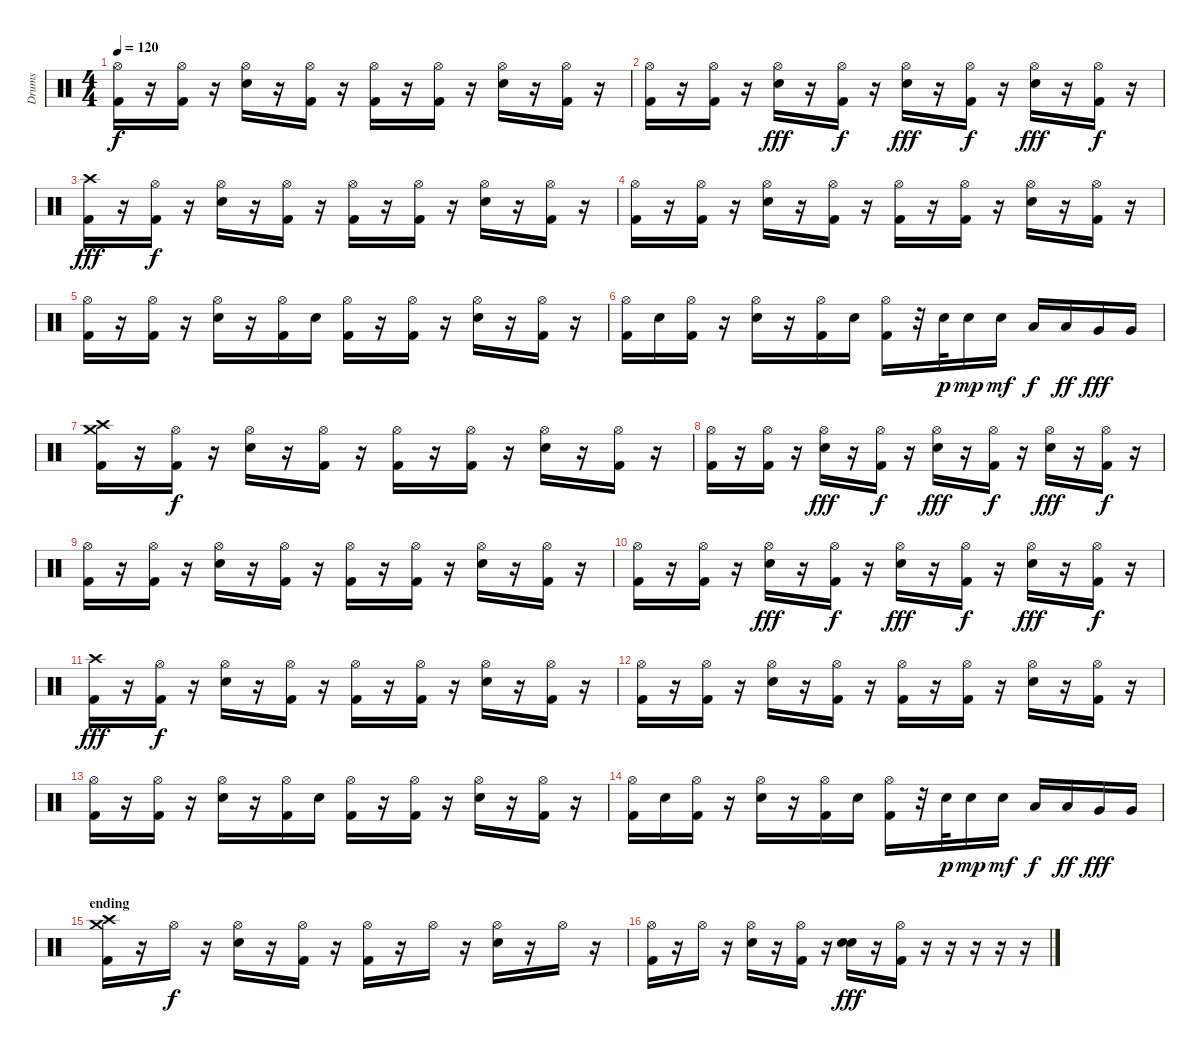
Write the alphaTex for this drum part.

\track ("Drums" "Drums") {instrument percussion}
\staff {score}
\articulation defaults
\ts (4 4)
\tempo 120
\clef neutral
\ks c
("Hi-Hat (open)" "Kick (hit) 2").16{dy f} r.16 ("Hi-Hat (open)" "Kick (hit) 2").16 r.16 ("Hi-Hat (open)" "Electric Snare (hit)").16 r.16 ("Hi-Hat (open)" "Kick (hit) 2").16 r.16 ("Hi-Hat (open)" "Kick (hit) 2").16 r.16 ("Hi-Hat (open)" "Kick (hit) 2").16 r.16 ("Hi-Hat (open)" "Electric Snare (hit)").16 r.16 ("Hi-Hat (open)" "Kick (hit) 2").16 r.16 |
("Hi-Hat (open)" "Kick (hit) 2").16 r.16 ("Hi-Hat (open)" "Kick (hit) 2").16 r.16 ("Hi-Hat (open)" "Electric Snare (hit)").16{dy fff} r.16 ("Hi-Hat (open)" "Kick (hit) 2").16{dy f} r.16 ("Hi-Hat (open)" "Electric Snare (hit)").16{dy fff} r.16 ("Hi-Hat (open)" "Kick (hit) 2").16{dy f} r.16 ("Hi-Hat (open)" "Electric Snare (hit)").16{dy fff} r.16 ("Hi-Hat (open)" "Kick (hit) 2").16{dy f} r.16 |
("Crash high (hit)" "Kick (hit) 2").16{dy fff} r.16 ("Hi-Hat (open)" "Kick (hit) 2").16{dy f} r.16 ("Hi-Hat (open)" "Electric Snare (hit)").16 r.16 ("Hi-Hat (open)" "Kick (hit) 2").16 r.16 ("Hi-Hat (open)" "Kick (hit) 2").16 r.16 ("Hi-Hat (open)" "Kick (hit) 2").16 r.16 ("Hi-Hat (open)" "Electric Snare (hit)").16 r.16 ("Hi-Hat (open)" "Kick (hit) 2").16 r.16 |
("Hi-Hat (open)" "Kick (hit) 2").16 r.16 ("Hi-Hat (open)" "Kick (hit) 2").16 r.16 ("Hi-Hat (open)" "Electric Snare (hit)").16 r.16 ("Hi-Hat (open)" "Kick (hit) 2").16 r.16 ("Hi-Hat (open)" "Kick (hit) 2").16 r.16 ("Hi-Hat (open)" "Kick (hit) 2").16 r.16 ("Hi-Hat (open)" "Electric Snare (hit)").16 r.16 ("Hi-Hat (open)" "Kick (hit) 2").16 r.16 |
("Hi-Hat (open)" "Kick (hit) 2").16 r.16 ("Hi-Hat (open)" "Kick (hit) 2").16 r.16 ("Hi-Hat (open)" "Electric Snare (hit)").16 r.16 ("Hi-Hat (open)" "Kick (hit) 2").16 "Electric Snare (hit)".16 ("Hi-Hat (open)" "Kick (hit) 2").16 r.16 ("Hi-Hat (open)" "Kick (hit) 2").16 r.16 ("Hi-Hat (open)" "Electric Snare (hit)").16 r.16 ("Hi-Hat (open)" "Kick (hit) 2").16 r.16 |
("Hi-Hat (open)" "Kick (hit) 2").16 "Electric Snare (hit)".16 ("Hi-Hat (open)" "Kick (hit) 2").16 r.16 ("Hi-Hat (open)" "Electric Snare (hit)").16 r.16 ("Hi-Hat (open)" "Kick (hit) 2").16 "Electric Snare (hit)".16 ("Hi-Hat (open)" "Kick (hit) 2").16 r.32 "Electric Snare (hit)".32{dy p} "Electric Snare (hit)".16{dy mp} "Electric Snare (hit)".16{dy mf} "Low Tom (hit)".16{dy f} "Low Tom (hit)".16{dy ff} "Very Low Tom (hit)".16{dy fff} "Very Low Tom (hit)".16 |
("Crash high (hit)" "Crash medium (hit)" "Kick (hit) 2").16 r.16 ("Hi-Hat (open)" "Kick (hit) 2").16{dy f} r.16 ("Hi-Hat (open)" "Electric Snare (hit)").16 r.16 ("Hi-Hat (open)" "Kick (hit) 2").16 r.16 ("Hi-Hat (open)" "Kick (hit) 2").16 r.16 ("Hi-Hat (open)" "Kick (hit) 2").16 r.16 ("Hi-Hat (open)" "Electric Snare (hit)").16 r.16 ("Hi-Hat (open)" "Kick (hit) 2").16 r.16 |
("Hi-Hat (open)" "Kick (hit) 2").16 r.16 ("Hi-Hat (open)" "Kick (hit) 2").16 r.16 ("Hi-Hat (open)" "Electric Snare (hit)").16{dy fff} r.16 ("Hi-Hat (open)" "Kick (hit) 2").16{dy f} r.16 ("Hi-Hat (open)" "Electric Snare (hit)").16{dy fff} r.16 ("Hi-Hat (open)" "Kick (hit) 2").16{dy f} r.16 ("Hi-Hat (open)" "Electric Snare (hit)").16{dy fff} r.16 ("Hi-Hat (open)" "Kick (hit) 2").16{dy f} r.16 |
("Hi-Hat (open)" "Kick (hit) 2").16 r.16 ("Hi-Hat (open)" "Kick (hit) 2").16 r.16 ("Hi-Hat (open)" "Electric Snare (hit)").16 r.16 ("Hi-Hat (open)" "Kick (hit) 2").16 r.16 ("Hi-Hat (open)" "Kick (hit) 2").16 r.16 ("Hi-Hat (open)" "Kick (hit) 2").16 r.16 ("Hi-Hat (open)" "Electric Snare (hit)").16 r.16 ("Hi-Hat (open)" "Kick (hit) 2").16 r.16 |
("Hi-Hat (open)" "Kick (hit) 2").16 r.16 ("Hi-Hat (open)" "Kick (hit) 2").16 r.16 ("Hi-Hat (open)" "Electric Snare (hit)").16{dy fff} r.16 ("Hi-Hat (open)" "Kick (hit) 2").16{dy f} r.16 ("Hi-Hat (open)" "Electric Snare (hit)").16{dy fff} r.16 ("Hi-Hat (open)" "Kick (hit) 2").16{dy f} r.16 ("Hi-Hat (open)" "Electric Snare (hit)").16{dy fff} r.16 ("Hi-Hat (open)" "Kick (hit) 2").16{dy f} r.16 |
("Crash high (hit)" "Kick (hit) 2").16{dy fff} r.16 ("Hi-Hat (open)" "Kick (hit) 2").16{dy f} r.16 ("Hi-Hat (open)" "Electric Snare (hit)").16 r.16 ("Hi-Hat (open)" "Kick (hit) 2").16 r.16 ("Hi-Hat (open)" "Kick (hit) 2").16 r.16 ("Hi-Hat (open)" "Kick (hit) 2").16 r.16 ("Hi-Hat (open)" "Electric Snare (hit)").16 r.16 ("Hi-Hat (open)" "Kick (hit) 2").16 r.16 |
("Hi-Hat (open)" "Kick (hit) 2").16 r.16 ("Hi-Hat (open)" "Kick (hit) 2").16 r.16 ("Hi-Hat (open)" "Electric Snare (hit)").16 r.16 ("Hi-Hat (open)" "Kick (hit) 2").16 r.16 ("Hi-Hat (open)" "Kick (hit) 2").16 r.16 ("Hi-Hat (open)" "Kick (hit) 2").16 r.16 ("Hi-Hat (open)" "Electric Snare (hit)").16 r.16 ("Hi-Hat (open)" "Kick (hit) 2").16 r.16 |
("Hi-Hat (open)" "Kick (hit) 2").16 r.16 ("Hi-Hat (open)" "Kick (hit) 2").16 r.16 ("Hi-Hat (open)" "Electric Snare (hit)").16 r.16 ("Hi-Hat (open)" "Kick (hit) 2").16 "Electric Snare (hit)".16 ("Hi-Hat (open)" "Kick (hit) 2").16 r.16 ("Hi-Hat (open)" "Kick (hit) 2").16 r.16 ("Hi-Hat (open)" "Electric Snare (hit)").16 r.16 ("Hi-Hat (open)" "Kick (hit) 2").16 r.16 |
("Hi-Hat (open)" "Kick (hit) 2").16 "Electric Snare (hit)".16 ("Hi-Hat (open)" "Kick (hit) 2").16 r.16 ("Hi-Hat (open)" "Electric Snare (hit)").16 r.16 ("Hi-Hat (open)" "Kick (hit) 2").16 "Electric Snare (hit)".16 ("Hi-Hat (open)" "Kick (hit) 2").16 r.32 "Electric Snare (hit)".32{dy p} "Electric Snare (hit)".16{dy mp} "Electric Snare (hit)".16{dy mf} "Low Tom (hit)".16{dy f} "Low Tom (hit)".16{dy ff} "Very Low Tom (hit)".16{dy fff} "Very Low Tom (hit)".16 |
\section ("" "ending")
("Crash high (hit)" "Crash medium (hit)" "Kick (hit) 2").16 r.16 "Hi-Hat (open)".16{dy f} r.16 ("Hi-Hat (open)" "Electric Snare (hit)").16 r.16 ("Hi-Hat (open)" "Kick (hit) 2").16 r.16 ("Hi-Hat (open)" "Kick (hit) 2").16 r.16 "Hi-Hat (open)".16 r.16 ("Hi-Hat (open)" "Electric Snare (hit)").16 r.16 "Hi-Hat (open)".16 r.16 |
("Hi-Hat (open)" "Kick (hit) 2").16 r.16 "Hi-Hat (open)".16 r.16 ("Hi-Hat (open)" "Electric Snare (hit)").16 r.16 ("Hi-Hat (open)" "Kick (hit) 2").16 r.16 ("Electric Snare (hit)" "Electric Snare (hit)").16{dy fff} r.16 ("Hi-Hat (open)" "Kick (hit) 2").16 r.16 r.16 r.16 r.16 r.16
